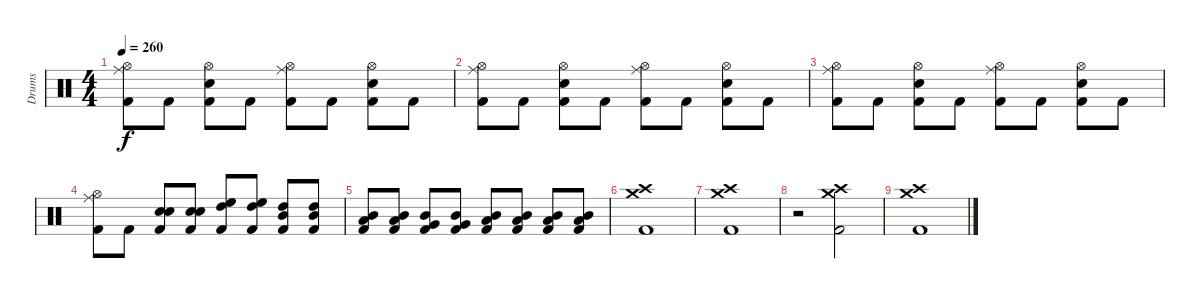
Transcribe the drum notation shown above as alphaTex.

\track ("Drums" "Drums") {instrument percussion}
\staff {score}
\articulation defaults
\ts (4 4)
\tempo 260
\clef neutral
\ks c
("Ride (middle)" "Hi-Hat (open)" "Kick (hit) 2").8{dy f} "Kick (hit) 2".8 ("Hi-Hat (open)" "Electric Snare (hit)" "Kick (hit) 2").8 "Kick (hit) 2".8 ("Ride (middle)" "Hi-Hat (open)" "Kick (hit) 2").8 "Kick (hit) 2".8 ("Hi-Hat (open)" "Electric Snare (hit)" "Kick (hit) 2").8 "Kick (hit) 2".8 |
("Ride (middle)" "Hi-Hat (open)" "Kick (hit) 2").8 "Kick (hit) 2".8 ("Hi-Hat (open)" "Electric Snare (hit)" "Kick (hit) 2").8 "Kick (hit) 2".8 ("Ride (middle)" "Hi-Hat (open)" "Kick (hit) 2").8 "Kick (hit) 2".8 ("Hi-Hat (open)" "Electric Snare (hit)" "Kick (hit) 2").8 "Kick (hit) 2".8 |
("Ride (middle)" "Hi-Hat (open)" "Kick (hit) 2").8 "Kick (hit) 2".8 ("Hi-Hat (open)" "Electric Snare (hit)" "Kick (hit) 2").8 "Kick (hit) 2".8 ("Ride (middle)" "Hi-Hat (open)" "Kick (hit) 2").8 "Kick (hit) 2".8 ("Hi-Hat (open)" "Electric Snare (hit)" "Kick (hit) 2").8 "Kick (hit) 2".8 |
("Ride (middle)" "Hi-Hat (open)" "Kick (hit) 2").8 "Kick (hit) 2".8 ("Electric Snare (hit)" "Electric Snare (hit)" "Kick (hit) 2").8 ("Electric Snare (hit)" "Electric Snare (hit)" "Kick (hit) 2").8 ("High Floor Tom (hit)" "High Tom (hit)" "Kick (hit) 2").8 ("High Floor Tom (hit)" "High Tom (hit)" "Kick (hit) 2").8 ("High Tom (hit)" "Mid Tom (hit)" "Kick (hit) 2").8 ("High Tom (hit)" "Mid Tom (hit)" "Kick (hit) 2").8 |
("Mid Tom (hit)" "Low Tom (hit)" "Kick (hit) 2").8 ("Mid Tom (hit)" "Low Tom (hit)" "Kick (hit) 2").8 ("Mid Tom (hit)" "Very Low Tom (hit)" "Kick (hit) 2").8 ("Mid Tom (hit)" "Very Low Tom (hit)" "Kick (hit) 2").8 ("Mid Tom (hit)" "Low Floor Tom (hit)" "Kick (hit) 2").8 ("Mid Tom (hit)" "Low Floor Tom (hit)" "Kick (hit) 2").8 ("Mid Tom (hit)" "Low Floor Tom (hit)" "Kick (hit) 2").8 ("Mid Tom (hit)" "Low Floor Tom (hit)" "Kick (hit) 2").8 |
("Crash medium (hit)" "Crash high (hit)" "Kick (hit) 2").1 |
("Crash medium (hit)" "Crash high (hit)" "Kick (hit) 2").1 |
r.2 ("Crash medium (hit)" "Crash high (hit)" "Kick (hit) 2").2 |
("Crash medium (hit)" "Crash high (hit)" "Kick (hit) 2").1
